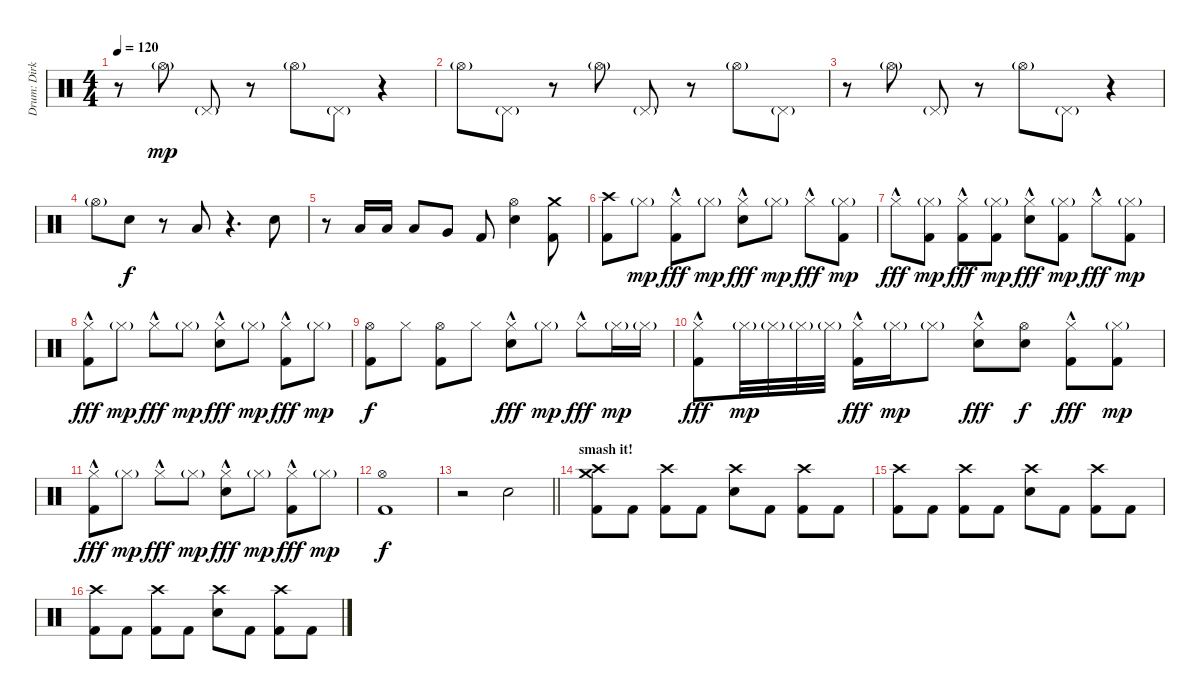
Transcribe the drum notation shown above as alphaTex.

\track ("Drum: Dirk" "Drum: Dirk") {instrument percussion}
\staff {score}
\articulation defaults
\ts (4 4)
\tempo 120
\clef neutral
\ks c
r.8{dy mp} "Hi-Hat (open)"{g}.8 "Pedal Hi-Hat (hit)"{g}.8 r.8 "Hi-Hat (open)"{g}.8 "Pedal Hi-Hat (hit)"{g}.8 r.4 |
"Hi-Hat (open)"{g}.8 "Pedal Hi-Hat (hit)"{g}.8 r.8 "Hi-Hat (open)"{g}.8 "Pedal Hi-Hat (hit)"{g}.8 r.8 "Hi-Hat (open)"{g}.8 "Pedal Hi-Hat (hit)"{g}.8 |
r.8 "Hi-Hat (open)"{g}.8 "Pedal Hi-Hat (hit)"{g}.8 r.8 "Hi-Hat (open)"{g}.8 "Pedal Hi-Hat (hit)"{g}.8 r.4 |
"Hi-Hat (open)"{g}.8{volume 10} "Snare (hit) 2".8{dy f} r.8 "Low Tom (hit)".8 r.4{d} "Snare (hit) 2".8 |
r.8 "Low Tom (hit)".16 "Low Tom (hit)".16 "Low Tom (hit)".8 "Very Low Tom (hit)".8 "Kick (hit) 2".8 ("Hi-Hat (open)" "Snare (hit) 2").4 ("Crash medium (hit)" "Kick (hit) 2").8 |
("Crash high (hit)" "Kick (hit) 2").8 "Hi-Hat (closed)"{g}.8{dy mp} ("Hi-Hat (closed)"{hac} "Kick (hit) 2").8{dy fff} "Hi-Hat (closed)"{g}.8{dy mp} ("Hi-Hat (closed)"{hac} "Snare (hit) 2").8{dy fff} "Hi-Hat (closed)"{g}.8{dy mp} "Hi-Hat (closed)"{hac}.8{dy fff} ("Hi-Hat (closed)"{g} "Kick (hit) 2").8{dy mp} |
"Hi-Hat (closed)"{hac}.8{dy fff} ("Hi-Hat (closed)"{g} "Kick (hit) 2").8{dy mp} ("Hi-Hat (closed)"{hac} "Kick (hit) 2").8{dy fff} ("Hi-Hat (closed)"{g} "Kick (hit) 2").8{dy mp} ("Hi-Hat (closed)"{hac} "Snare (hit) 2").8{dy fff} ("Hi-Hat (closed)"{g} "Kick (hit) 2").8{dy mp} "Hi-Hat (closed)"{hac}.8{dy fff} ("Hi-Hat (closed)"{g} "Kick (hit) 2").8{dy mp} |
("Hi-Hat (closed)"{hac} "Kick (hit) 2").8{dy fff} "Hi-Hat (closed)"{g}.8{dy mp} "Hi-Hat (closed)"{hac}.8{dy fff} "Hi-Hat (closed)"{g}.8{dy mp} ("Hi-Hat (closed)"{hac} "Snare (hit) 2").8{dy fff} "Hi-Hat (closed)"{g}.8{dy mp} ("Hi-Hat (closed)"{hac} "Kick (hit) 2").8{dy fff} "Hi-Hat (closed)"{g}.8{dy mp} |
("Hi-Hat (open)" "Kick (hit) 2").8{dy f} "Hi-Hat (closed)".8 ("Hi-Hat (open)" "Kick (hit) 2").8 "Hi-Hat (closed)".8 ("Hi-Hat (closed)"{hac} "Snare (hit) 2").8{dy fff} "Hi-Hat (closed)"{g}.8{dy mp} "Hi-Hat (closed)"{hac}.8{dy fff} "Hi-Hat (closed)"{g}.16{dy mp} "Hi-Hat (closed)"{g}.16 |
("Hi-Hat (closed)"{hac} "Kick (hit) 2").8{dy fff} "Hi-Hat (closed)"{g}.32{dy mp} "Hi-Hat (closed)"{g}.32 "Hi-Hat (closed)"{g}.32 "Hi-Hat (closed)"{g}.32 ("Hi-Hat (closed)"{hac} "Kick (hit) 2").16{dy fff} "Hi-Hat (closed)"{g}.16{dy mp} "Hi-Hat (closed)"{g}.8 ("Hi-Hat (closed)"{hac} "Snare (hit) 2").8{dy fff} ("Hi-Hat (open)" "Snare (hit) 2").8{dy f} ("Hi-Hat (closed)"{hac} "Kick (hit) 2").8{dy fff} ("Hi-Hat (closed)"{g} "Kick (hit) 2").8{dy mp} |
("Hi-Hat (closed)"{hac} "Kick (hit) 2").8{dy fff} "Hi-Hat (closed)"{g}.8{dy mp} "Hi-Hat (closed)"{hac}.8{dy fff} "Hi-Hat (closed)"{g}.8{dy mp} ("Hi-Hat (closed)"{hac} "Snare (hit) 2").8{dy fff} "Hi-Hat (closed)"{g}.8{dy mp} ("Hi-Hat (closed)"{hac} "Kick (hit) 2").8{dy fff} "Hi-Hat (closed)"{g}.8{dy mp} |
("Hi-Hat (open)" "Kick (hit) 2").1{dy f} |
\barLineRight lightlight
r.2{volume 13} "Electric Snare (hit)".2 |
\section ("" "smash it!")
("Crash high (hit)" "Crash medium (hit)" "Kick (hit) 2").8 "Kick (hit) 2".8 ("Crash high (hit)" "Kick (hit) 2").8 "Kick (hit) 2".8 ("Crash high (hit)" "Electric Snare (hit)").8 "Kick (hit) 2".8 ("Crash high (hit)" "Kick (hit) 2").8 "Kick (hit) 2".8 |
("Crash high (hit)" "Kick (hit) 2").8 "Kick (hit) 2".8 ("Crash high (hit)" "Kick (hit) 2").8 "Kick (hit) 2".8 ("Crash high (hit)" "Electric Snare (hit)").8 "Kick (hit) 2".8 ("Crash high (hit)" "Kick (hit) 2").8 "Kick (hit) 2".8 |
("Crash high (hit)" "Kick (hit) 2").8 "Kick (hit) 2".8 ("Crash high (hit)" "Kick (hit) 2").8 "Kick (hit) 2".8 ("Crash high (hit)" "Electric Snare (hit)").8 "Kick (hit) 2".8 ("Crash high (hit)" "Kick (hit) 2").8 "Kick (hit) 2".8
